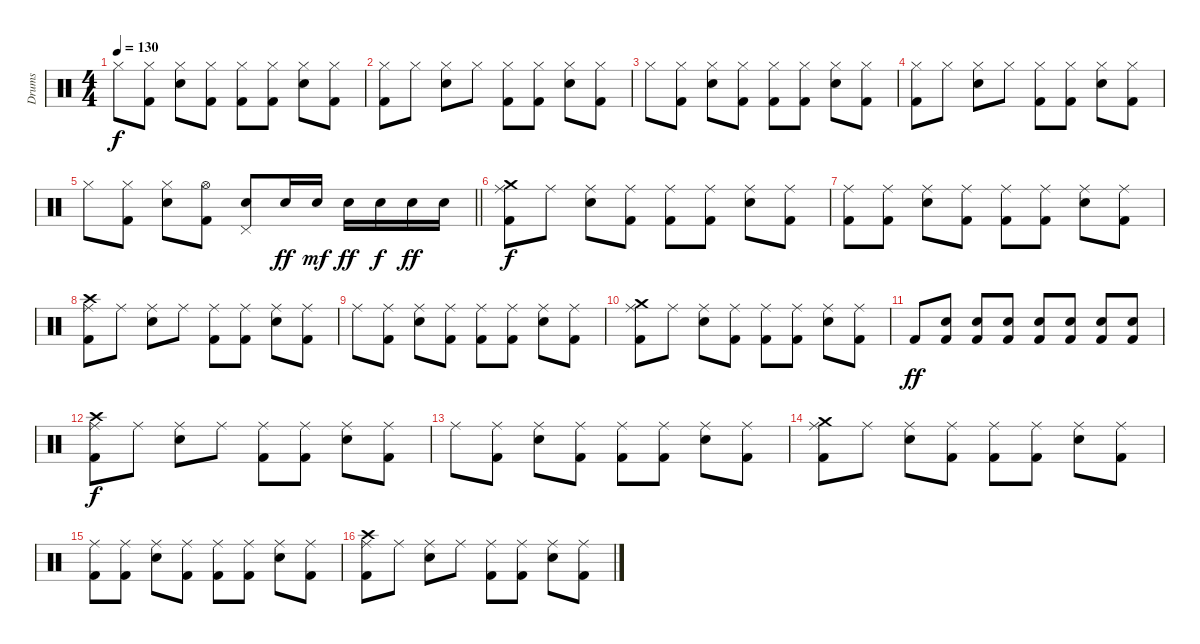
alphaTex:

\track ("Drums" "Drums") {instrument percussion}
\staff {score}
\articulation defaults
\ts (4 4)
\tempo 130
\clef neutral
\ks c "Hi-Hat (closed)".8{dy f}
("Hi-Hat (closed)" "Kick (hit) 2").8 ("Hi-Hat (closed)" "Electric Snare (hit)").8 ("Hi-Hat (closed)" "Kick (hit) 2").8 ("Hi-Hat (closed)" "Kick (hit) 2").8 ("Hi-Hat (closed)" "Kick (hit) 2").8 ("Hi-Hat (closed)" "Electric Snare (hit)").8 ("Hi-Hat (closed)" "Kick (hit) 2").8 |
("Hi-Hat (closed)" "Kick (hit) 2").8 "Hi-Hat (closed)".8 ("Hi-Hat (closed)" "Electric Snare (hit)").8 "Hi-Hat (closed)".8 ("Hi-Hat (closed)" "Kick (hit) 2").8 ("Hi-Hat (closed)" "Kick (hit) 2").8 ("Hi-Hat (closed)" "Electric Snare (hit)").8 ("Hi-Hat (closed)" "Kick (hit) 2").8 |
"Hi-Hat (closed)".8 ("Hi-Hat (closed)" "Kick (hit) 2").8 ("Hi-Hat (closed)" "Electric Snare (hit)").8 ("Hi-Hat (closed)" "Kick (hit) 2").8 ("Hi-Hat (closed)" "Kick (hit) 2").8 ("Hi-Hat (closed)" "Kick (hit) 2").8 ("Hi-Hat (closed)" "Electric Snare (hit)").8 ("Hi-Hat (closed)" "Kick (hit) 2").8 |
("Hi-Hat (closed)" "Kick (hit) 2").8 "Hi-Hat (closed)".8 ("Hi-Hat (closed)" "Electric Snare (hit)").8 "Hi-Hat (closed)".8 ("Hi-Hat (closed)" "Kick (hit) 2").8 ("Hi-Hat (closed)" "Kick (hit) 2").8 ("Hi-Hat (closed)" "Electric Snare (hit)").8 ("Hi-Hat (closed)" "Kick (hit) 2").8 |
\barLineRight lightlight "Hi-Hat (closed)".8
("Hi-Hat (closed)" "Kick (hit) 2").8 ("Hi-Hat (closed)" "Electric Snare (hit)").8 ("Hi-Hat (open)" "Kick (hit) 2").8 ("Pedal Hi-Hat (hit)" "Electric Snare (hit)").8 "Electric Snare (hit)".16{dy ff} "Electric Snare (hit)".16{dy mf} "Electric Snare (hit)".16{dy ff} "Electric Snare (hit)".16{dy f} "Electric Snare (hit)".16{dy ff} "Electric Snare (hit)".16 |
("Ride (middle)" "Crash medium (hit)" "Kick (hit) 2").8{dy f} "Ride (middle)".8 ("Ride (middle)" "Electric Snare (hit)").8 ("Ride (middle)" "Kick (hit) 2").8 ("Ride (middle)" "Kick (hit) 2").8 ("Ride (middle)" "Kick (hit) 2").8 ("Ride (middle)" "Electric Snare (hit)").8 ("Ride (middle)" "Kick (hit) 2").8 |
("Ride (middle)" "Kick (hit) 2").8 ("Ride (middle)" "Kick (hit) 2").8 ("Ride (middle)" "Electric Snare (hit)").8 ("Ride (middle)" "Kick (hit) 2").8 ("Ride (middle)" "Kick (hit) 2").8 ("Ride (middle)" "Kick (hit) 2").8 ("Ride (middle)" "Electric Snare (hit)").8 ("Ride (middle)" "Kick (hit) 2").8 |
("Ride (middle)" "Crash high (hit)" "Kick (hit) 2").8 "Ride (middle)".8 ("Ride (middle)" "Electric Snare (hit)").8 "Ride (middle)".8 ("Ride (middle)" "Kick (hit) 2").8 ("Ride (middle)" "Kick (hit) 2").8 ("Ride (middle)" "Electric Snare (hit)").8 ("Ride (middle)" "Kick (hit) 2").8 |
"Ride (middle)".8 ("Ride (middle)" "Kick (hit) 2").8 ("Ride (middle)" "Electric Snare (hit)").8 ("Ride (middle)" "Kick (hit) 2").8 ("Ride (middle)" "Kick (hit) 2").8 ("Ride (middle)" "Kick (hit) 2").8 ("Ride (middle)" "Electric Snare (hit)").8 ("Ride (middle)" "Kick (hit) 2").8 |
("Ride (middle)" "Crash medium (hit)" "Kick (hit) 2").8 "Ride (middle)".8 ("Ride (middle)" "Electric Snare (hit)").8 ("Ride (middle)" "Kick (hit) 2").8 ("Ride (middle)" "Kick (hit) 2").8 ("Ride (middle)" "Kick (hit) 2").8 ("Ride (middle)" "Electric Snare (hit)").8 ("Ride (middle)" "Kick (hit) 2").8 |
"Kick (hit) 2".8{dy ff} ("Electric Snare (hit)" "Kick (hit) 2").8 ("Electric Snare (hit)" "Kick (hit) 2").8 ("Electric Snare (hit)" "Kick (hit) 2").8 ("Electric Snare (hit)" "Kick (hit) 2").8 ("Electric Snare (hit)" "Kick (hit) 2").8 ("Electric Snare (hit)" "Kick (hit) 2").8 ("Electric Snare (hit)" "Kick (hit) 2").8 |
("Ride (middle)" "Crash high (hit)" "Kick (hit) 2").8{dy f} "Ride (middle)".8 ("Ride (middle)" "Electric Snare (hit)").8 "Ride (middle)".8 ("Ride (middle)" "Kick (hit) 2").8 ("Ride (middle)" "Kick (hit) 2").8 ("Ride (middle)" "Electric Snare (hit)").8 ("Ride (middle)" "Kick (hit) 2").8 |
"Ride (middle)".8 ("Ride (middle)" "Kick (hit) 2").8 ("Ride (middle)" "Electric Snare (hit)").8 ("Ride (middle)" "Kick (hit) 2").8 ("Ride (middle)" "Kick (hit) 2").8 ("Ride (middle)" "Kick (hit) 2").8 ("Ride (middle)" "Electric Snare (hit)").8 ("Ride (middle)" "Kick (hit) 2").8 |
("Ride (middle)" "Crash medium (hit)" "Kick (hit) 2").8 "Ride (middle)".8 ("Ride (middle)" "Electric Snare (hit)").8 ("Ride (middle)" "Kick (hit) 2").8 ("Ride (middle)" "Kick (hit) 2").8 ("Ride (middle)" "Kick (hit) 2").8 ("Ride (middle)" "Electric Snare (hit)").8 ("Ride (middle)" "Kick (hit) 2").8 |
("Ride (middle)" "Kick (hit) 2").8 ("Ride (middle)" "Kick (hit) 2").8 ("Ride (middle)" "Electric Snare (hit)").8 ("Ride (middle)" "Kick (hit) 2").8 ("Ride (middle)" "Kick (hit) 2").8 ("Ride (middle)" "Kick (hit) 2").8 ("Ride (middle)" "Electric Snare (hit)").8 ("Ride (middle)" "Kick (hit) 2").8 |
("Ride (middle)" "Crash high (hit)" "Kick (hit) 2").8 "Ride (middle)".8 ("Ride (middle)" "Electric Snare (hit)").8 "Ride (middle)".8 ("Ride (middle)" "Kick (hit) 2").8 ("Ride (middle)" "Kick (hit) 2").8 ("Ride (middle)" "Electric Snare (hit)").8 ("Ride (middle)" "Kick (hit) 2").8
